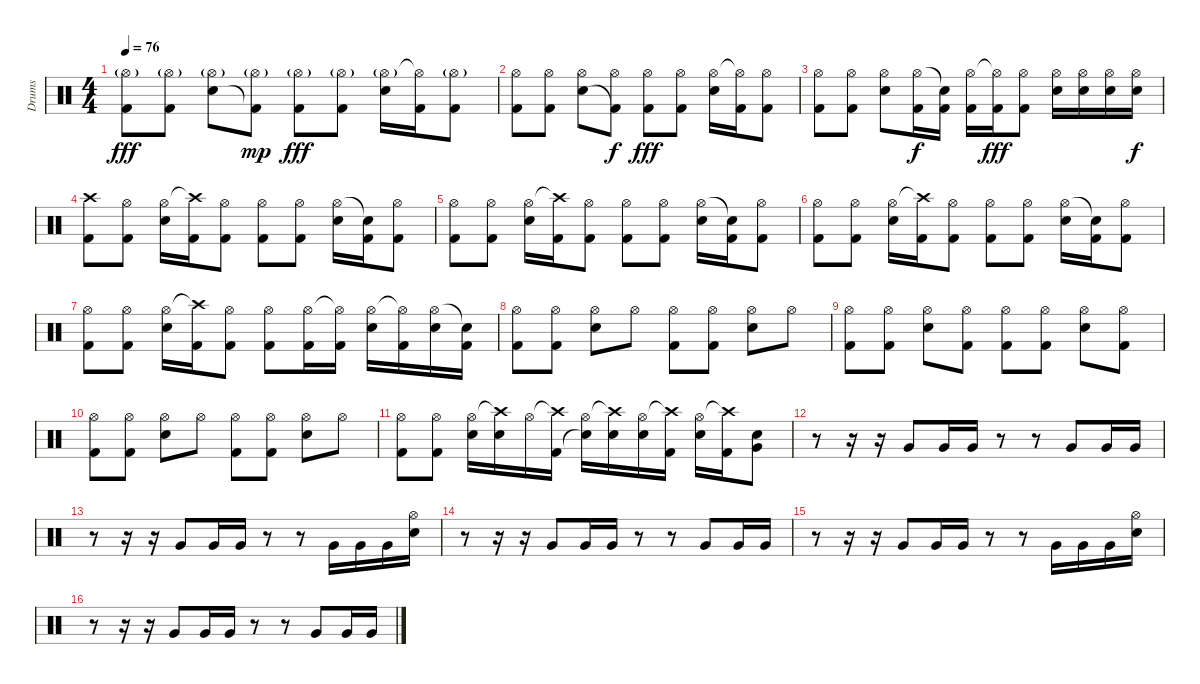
\track ("Drums" "Drums") {instrument percussion}
\staff {score}
\articulation defaults
\ts (4 4)
\tempo 76
\clef neutral
\ks c
("Hi-Hat (open)"{g} "Kick (hit) 2").8{dy fff} ("Hi-Hat (open)"{g} "Kick (hit) 2").8 ("Hi-Hat (open)"{g} "Electric Snare (hit)").8 ("Hi-Hat (open)"{g} "Kick (hit) 2"{t}).8{dy mp} ("Hi-Hat (open)"{g} "Kick (hit) 2").8{dy fff} ("Hi-Hat (open)"{g} "Kick (hit) 2").8 ("Hi-Hat (open)"{g} "Electric Snare (hit)").16 ("Hi-Hat (open)"{t} "Kick (hit) 2").16 ("Hi-Hat (open)"{g} "Kick (hit) 2").8 |
("Hi-Hat (open)" "Kick (hit) 2").8 ("Hi-Hat (open)" "Kick (hit) 2").8 ("Hi-Hat (open)" "Electric Snare (hit)").8 ("Hi-Hat (open)" "Kick (hit) 2"{t}).8{dy f} ("Hi-Hat (open)" "Kick (hit) 2").8{dy fff} ("Hi-Hat (open)" "Kick (hit) 2").8 ("Hi-Hat (open)" "Electric Snare (hit)").16 ("Hi-Hat (open)"{t} "Kick (hit) 2").16 ("Hi-Hat (open)" "Kick (hit) 2").8 |
("Hi-Hat (open)" "Kick (hit) 2").8 ("Hi-Hat (open)" "Kick (hit) 2").8 ("Hi-Hat (open)" "Electric Snare (hit)").8 ("Hi-Hat (open)" "Kick (hit) 2").16{dy f} ("Snare (hit)"{t} "Kick (hit) 2").16 ("Hi-Hat (open)" "Kick (hit) 2").16 ("Hi-Hat (open)"{t} "Kick (hit) 2").16{dy fff} ("Hi-Hat (open)" "Kick (hit) 2").8 ("Hi-Hat (open)" "Electric Snare (hit)").16 ("Hi-Hat (open)" "Electric Snare (hit)").16 ("Hi-Hat (open)" "Electric Snare (hit)").16 ("Hi-Hat (open)" "Electric Snare (hit)").16{dy f} |
("Crash high (hit)" "Kick (hit) 2").8 ("Hi-Hat (open)" "Kick (hit) 2").8 ("Hi-Hat (open)" "Electric Snare (hit)").16 ("Crash high (hit)"{t} "Kick (hit) 2").16 ("Hi-Hat (open)" "Kick (hit) 2").8 ("Hi-Hat (open)" "Kick (hit) 2").8 ("Hi-Hat (open)" "Kick (hit) 2").8 ("Hi-Hat (open)" "Electric Snare (hit)").16 ("Snare (hit)"{t} "Kick (hit) 2").16 ("Hi-Hat (open)" "Kick (hit) 2").8 |
("Hi-Hat (open)" "Kick (hit) 2").8 ("Hi-Hat (open)" "Kick (hit) 2").8 ("Hi-Hat (open)" "Electric Snare (hit)").16 ("Crash high (hit)"{t} "Kick (hit) 2").16 ("Hi-Hat (open)" "Kick (hit) 2").8 ("Hi-Hat (open)" "Kick (hit) 2").8 ("Hi-Hat (open)" "Kick (hit) 2").8 ("Hi-Hat (open)" "Electric Snare (hit)").16 ("Snare (hit)"{t} "Kick (hit) 2").16 ("Hi-Hat (open)" "Kick (hit) 2").8 |
("Hi-Hat (open)" "Kick (hit) 2").8 ("Hi-Hat (open)" "Kick (hit) 2").8 ("Hi-Hat (open)" "Electric Snare (hit)").16 ("Crash high (hit)"{t} "Kick (hit) 2").16 ("Hi-Hat (open)" "Kick (hit) 2").8 ("Hi-Hat (open)" "Kick (hit) 2").8 ("Hi-Hat (open)" "Kick (hit) 2").8 ("Hi-Hat (open)" "Electric Snare (hit)").16 ("Snare (hit)"{t} "Kick (hit) 2").16 ("Hi-Hat (open)" "Kick (hit) 2").8 |
("Hi-Hat (open)" "Kick (hit) 2").8 ("Hi-Hat (open)" "Kick (hit) 2").8 ("Hi-Hat (open)" "Electric Snare (hit)").16 ("Crash high (hit)"{t} "Kick (hit) 2").16 ("Hi-Hat (open)" "Kick (hit) 2").8 ("Hi-Hat (open)" "Kick (hit) 2").8 ("Hi-Hat (open)" "Kick (hit) 2").16 ("Hi-Hat (open)"{t} "Kick (hit) 2").16 ("Hi-Hat (open)" "Electric Snare (hit)").16 ("Hi-Hat (open)"{t} "Kick (hit) 2").16 ("Hi-Hat (open)" "Electric Snare (hit)").16 ("Snare (hit)"{t} "Kick (hit) 2").16 |
("Hi-Hat (open)" "Kick (hit) 2").8 ("Hi-Hat (open)" "Kick (hit) 2").8 ("Hi-Hat (open)" "Electric Snare (hit)").8 "Hi-Hat (open)".8 ("Hi-Hat (open)" "Kick (hit) 2").8 ("Hi-Hat (open)" "Kick (hit) 2").8 ("Hi-Hat (open)" "Electric Snare (hit)").8 "Hi-Hat (open)".8 |
("Hi-Hat (open)" "Kick (hit) 2").8 ("Hi-Hat (open)" "Kick (hit) 2").8 ("Hi-Hat (open)" "Electric Snare (hit)").8 ("Hi-Hat (open)" "Kick (hit) 2").8 ("Hi-Hat (open)" "Kick (hit) 2").8 ("Hi-Hat (open)" "Kick (hit) 2").8 ("Hi-Hat (open)" "Electric Snare (hit)").8 ("Hi-Hat (open)" "Kick (hit) 2").8 |
("Hi-Hat (open)" "Kick (hit) 2").8 ("Hi-Hat (open)" "Kick (hit) 2").8 ("Hi-Hat (open)" "Electric Snare (hit)").8 "Hi-Hat (open)".8 ("Hi-Hat (open)" "Kick (hit) 2").8 ("Hi-Hat (open)" "Kick (hit) 2").8 ("Hi-Hat (open)" "Electric Snare (hit)").8 "Hi-Hat (open)".8 |
("Hi-Hat (open)" "Kick (hit) 2").8 ("Hi-Hat (open)" "Kick (hit) 2").8 ("Hi-Hat (open)" "Electric Snare (hit)").16 ("Crash high (hit)"{t} "Electric Snare (hit)").16 "Hi-Hat (open)".16 ("Crash high (hit)"{t} "Kick (hit) 2").16 ("Hi-Hat (open)" "Snare (hit)"{t}).16 ("Crash high (hit)"{t} "Electric Snare (hit)").16 ("Hi-Hat (open)" "Electric Snare (hit)").16 ("Crash high (hit)"{t} "Kick (hit) 2").16 ("Hi-Hat (open)" "Electric Snare (hit)").16 ("Crash high (hit)"{t} "Kick (hit) 2").16 ("Very Low Tom (hit)" "Electric Snare (hit)").8 |
r.8 r.16 r.16 "Very Low Tom (hit)".8 "Very Low Tom (hit)".16 "Very Low Tom (hit)".16 r.8 r.8 "Very Low Tom (hit)".8 "Very Low Tom (hit)".16 "Very Low Tom (hit)".16 |
r.8 r.16 r.16 "Very Low Tom (hit)".8 "Very Low Tom (hit)".16 "Very Low Tom (hit)".16 r.8 r.8 "Very Low Tom (hit)".16 "Very Low Tom (hit)".16 "Very Low Tom (hit)".16 ("Hi-Hat (open)" "Electric Snare (hit)").16 |
r.8 r.16 r.16 "Very Low Tom (hit)".8 "Very Low Tom (hit)".16 "Very Low Tom (hit)".16 r.8 r.8 "Very Low Tom (hit)".8 "Very Low Tom (hit)".16 "Very Low Tom (hit)".16 |
r.8 r.16 r.16 "Very Low Tom (hit)".8 "Very Low Tom (hit)".16 "Very Low Tom (hit)".16 r.8 r.8 "Very Low Tom (hit)".16 "Very Low Tom (hit)".16 "Very Low Tom (hit)".16 ("Hi-Hat (open)" "Electric Snare (hit)").16 |
r.8 r.16 r.16 "Very Low Tom (hit)".8 "Very Low Tom (hit)".16 "Very Low Tom (hit)".16 r.8 r.8 "Very Low Tom (hit)".8 "Very Low Tom (hit)".16 "Very Low Tom (hit)".16
